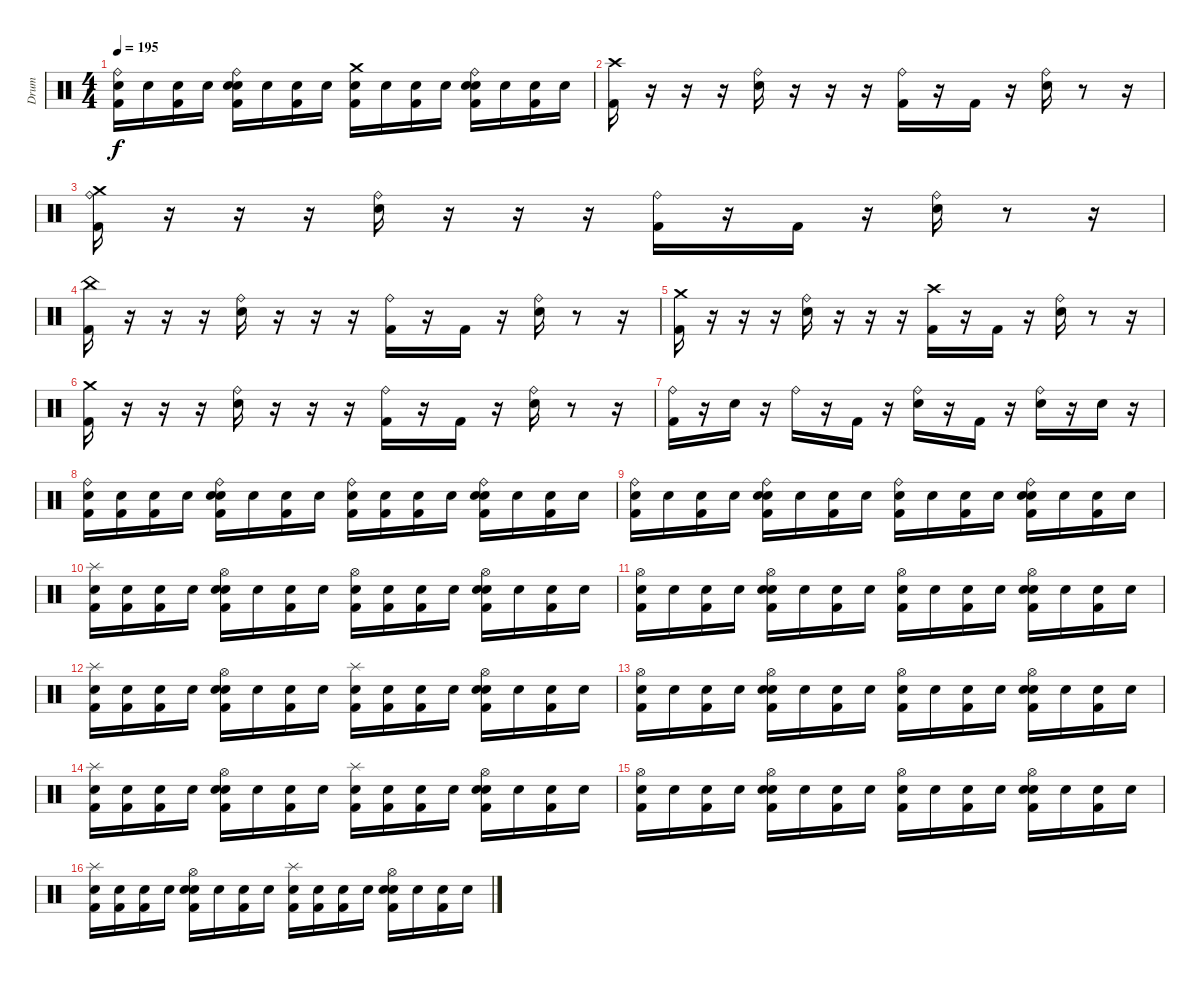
\track ("Drum" "Drum") {instrument percussion}
\staff {score}
\articulation defaults
\ts (4 4)
\tempo 195
\clef neutral
\ks c
("Ride (bell)" "Snare (hit)" "Kick (hit) 2").16{dy f} "Snare (hit)".16 ("Snare (hit)" "Kick (hit) 2").16 "Snare (hit)".16 ("Ride (bell)" "Snare (hit) 2" "Snare (hit)" "Kick (hit) 2").16 "Snare (hit)".16 ("Snare (hit)" "Kick (hit) 2").16 "Snare (hit)".16 ("Crash medium (hit)" "Snare (hit)" "Kick (hit) 2").16 "Snare (hit)".16 ("Snare (hit)" "Kick (hit) 2").16 "Snare (hit)".16 ("Ride (bell)" "Snare (hit) 2" "Snare (hit)" "Kick (hit) 2").16 "Snare (hit)".16 ("Snare (hit)" "Kick (hit) 2").16 "Snare (hit)".16 |
("Crash high (hit)" "Kick (hit) 2").16 r.16 r.16 r.16 ("Ride (bell)" "Snare (hit) 2").16 r.16 r.16 r.16 ("Ride (bell)" "Kick (hit) 2").16 r.16 "Kick (hit) 2".16 r.16 ("Ride (bell)" "Snare (hit) 2").16 r.8 r.16 |
("Crash medium (hit)" "Ride (bell)" "Kick (hit) 2").16 r.16 r.16 r.16 ("Ride (bell)" "Snare (hit) 2").16 r.16 r.16 r.16 ("Ride (bell)" "Kick (hit) 2").16 r.16 "Kick (hit) 2".16 r.16 ("Ride (bell)" "Snare (hit) 2").16 r.8 r.16 |
("China (hit)" "Kick (hit) 2").16 r.16 r.16 r.16 ("Ride (bell)" "Snare (hit) 2").16 r.16 r.16 r.16 ("Ride (bell)" "Kick (hit) 2").16 r.16 "Kick (hit) 2".16 r.16 ("Ride (bell)" "Snare (hit) 2").16 r.8 r.16 |
("Crash medium (hit)" "Kick (hit) 2").16 r.16 r.16 r.16 ("Ride (bell)" "Snare (hit) 2").16 r.16 r.16 r.16 ("Crash high (hit)" "Kick (hit) 2").16 r.16 "Kick (hit) 2".16 r.16 ("Ride (bell)" "Snare (hit) 2").16 r.8 r.16 |
("Crash medium (hit)" "Kick (hit) 2").16 r.16 r.16 r.16 ("Ride (bell)" "Snare (hit) 2").16 r.16 r.16 r.16 ("Ride (bell)" "Kick (hit) 2").16 r.16 "Kick (hit) 2".16 r.16 ("Ride (bell)" "Snare (hit) 2").16 r.8 r.16 |
("Ride (bell)" "Kick (hit) 2").16 r.16 "Snare (hit) 2".16 r.16 "Ride (bell)".16 r.16 "Kick (hit) 2".16 r.16 ("Ride (bell)" "Snare (hit) 2").16 r.16 "Kick (hit) 2".16 r.16 ("Ride (bell)" "Snare (hit) 2").16 r.16 "Snare (hit) 2".16 r.16 |
("Ride (bell)" "Snare (hit)" "Kick (hit) 2").16 ("Snare (hit)" "Kick (hit) 2").16 ("Snare (hit)" "Kick (hit) 2").16 "Snare (hit)".16 ("Ride (bell)" "Snare (hit) 2" "Snare (hit)" "Kick (hit) 2").16 "Snare (hit)".16 ("Snare (hit)" "Kick (hit) 2").16 "Snare (hit)".16 ("Ride (bell)" "Snare (hit)" "Kick (hit) 2").16 ("Snare (hit)" "Kick (hit) 2").16 ("Snare (hit)" "Kick (hit) 2").16 "Snare (hit)".16 ("Ride (bell)" "Snare (hit) 2" "Snare (hit)" "Kick (hit) 2").16 "Snare (hit)".16 ("Snare (hit)" "Kick (hit) 2").16 "Snare (hit)".16 |
("Ride (bell)" "Snare (hit)" "Kick (hit) 2").16 "Snare (hit)".16 ("Snare (hit)" "Kick (hit) 2").16 "Snare (hit)".16 ("Ride (bell)" "Snare (hit) 2" "Snare (hit)" "Kick (hit) 2").16 "Snare (hit)".16 ("Snare (hit)" "Kick (hit) 2").16 "Snare (hit)".16 ("Ride (bell)" "Snare (hit)" "Kick (hit) 2").16 "Snare (hit)".16 ("Snare (hit)" "Kick (hit) 2").16 "Snare (hit)".16 ("Ride (bell)" "Snare (hit) 2" "Snare (hit)" "Kick (hit) 2").16 "Snare (hit)".16 ("Snare (hit)" "Kick (hit) 2").16 "Snare (hit)".16 |
("Splash (hit)" "Snare (hit)" "Kick (hit) 2").16 ("Snare (hit)" "Kick (hit) 2").16 ("Snare (hit)" "Kick (hit) 2").16 "Snare (hit)".16 ("Hi-Hat (open)" "Snare (hit) 2" "Snare (hit)" "Kick (hit) 2").16 "Snare (hit)".16 ("Snare (hit)" "Kick (hit) 2").16 "Snare (hit)".16 ("Hi-Hat (open)" "Snare (hit)" "Kick (hit) 2").16 ("Snare (hit)" "Kick (hit) 2").16 ("Snare (hit)" "Kick (hit) 2").16 "Snare (hit)".16 ("Hi-Hat (open)" "Snare (hit) 2" "Snare (hit)" "Kick (hit) 2").16 "Snare (hit)".16 ("Snare (hit)" "Kick (hit) 2").16 "Snare (hit)".16 |
("Hi-Hat (open)" "Snare (hit)" "Kick (hit) 2").16 "Snare (hit)".16 ("Snare (hit)" "Kick (hit) 2").16 "Snare (hit)".16 ("Hi-Hat (open)" "Snare (hit) 2" "Snare (hit)" "Kick (hit) 2").16 "Snare (hit)".16 ("Snare (hit)" "Kick (hit) 2").16 "Snare (hit)".16 ("Hi-Hat (open)" "Snare (hit)" "Kick (hit) 2").16 "Snare (hit)".16 ("Snare (hit)" "Kick (hit) 2").16 "Snare (hit)".16 ("Hi-Hat (open)" "Snare (hit) 2" "Snare (hit)" "Kick (hit) 2").16 "Snare (hit)".16 ("Snare (hit)" "Kick (hit) 2").16 "Snare (hit)".16 |
("Splash (hit)" "Snare (hit)" "Kick (hit) 2").16 ("Snare (hit)" "Kick (hit) 2").16 ("Snare (hit)" "Kick (hit) 2").16 "Snare (hit)".16 ("Hi-Hat (open)" "Snare (hit) 2" "Snare (hit)" "Kick (hit) 2").16 "Snare (hit)".16 ("Snare (hit)" "Kick (hit) 2").16 "Snare (hit)".16 ("Splash (hit)" "Snare (hit)" "Kick (hit) 2").16 ("Snare (hit)" "Kick (hit) 2").16 ("Snare (hit)" "Kick (hit) 2").16 "Snare (hit)".16 ("Hi-Hat (open)" "Snare (hit) 2" "Snare (hit)" "Kick (hit) 2").16 "Snare (hit)".16 ("Snare (hit)" "Kick (hit) 2").16 "Snare (hit)".16 |
("Hi-Hat (open)" "Snare (hit)" "Kick (hit) 2").16 "Snare (hit)".16 ("Snare (hit)" "Kick (hit) 2").16 "Snare (hit)".16 ("Hi-Hat (open)" "Snare (hit) 2" "Snare (hit)" "Kick (hit) 2").16 "Snare (hit)".16 ("Snare (hit)" "Kick (hit) 2").16 "Snare (hit)".16 ("Hi-Hat (open)" "Snare (hit)" "Kick (hit) 2").16 "Snare (hit)".16 ("Snare (hit)" "Kick (hit) 2").16 "Snare (hit)".16 ("Hi-Hat (open)" "Snare (hit) 2" "Snare (hit)" "Kick (hit) 2").16 "Snare (hit)".16 ("Snare (hit)" "Kick (hit) 2").16 "Snare (hit)".16 |
("Splash (hit)" "Snare (hit)" "Kick (hit) 2").16 ("Snare (hit)" "Kick (hit) 2").16 ("Snare (hit)" "Kick (hit) 2").16 "Snare (hit)".16 ("Hi-Hat (open)" "Snare (hit) 2" "Snare (hit)" "Kick (hit) 2").16 "Snare (hit)".16 ("Snare (hit)" "Kick (hit) 2").16 "Snare (hit)".16 ("Splash (hit)" "Snare (hit)" "Kick (hit) 2").16 ("Snare (hit)" "Kick (hit) 2").16 ("Snare (hit)" "Kick (hit) 2").16 "Snare (hit)".16 ("Hi-Hat (open)" "Snare (hit) 2" "Snare (hit)" "Kick (hit) 2").16 "Snare (hit)".16 ("Snare (hit)" "Kick (hit) 2").16 "Snare (hit)".16 |
("Hi-Hat (open)" "Snare (hit)" "Kick (hit) 2").16 "Snare (hit)".16 ("Snare (hit)" "Kick (hit) 2").16 "Snare (hit)".16 ("Hi-Hat (open)" "Snare (hit) 2" "Snare (hit)" "Kick (hit) 2").16 "Snare (hit)".16 ("Snare (hit)" "Kick (hit) 2").16 "Snare (hit)".16 ("Hi-Hat (open)" "Snare (hit)" "Kick (hit) 2").16 "Snare (hit)".16 ("Snare (hit)" "Kick (hit) 2").16 "Snare (hit)".16 ("Hi-Hat (open)" "Snare (hit) 2" "Snare (hit)" "Kick (hit) 2").16 "Snare (hit)".16 ("Snare (hit)" "Kick (hit) 2").16 "Snare (hit)".16 |
("Splash (hit)" "Snare (hit)" "Kick (hit) 2").16 ("Snare (hit)" "Kick (hit) 2").16 ("Snare (hit)" "Kick (hit) 2").16 "Snare (hit)".16 ("Hi-Hat (open)" "Snare (hit) 2" "Snare (hit)" "Kick (hit) 2").16 "Snare (hit)".16 ("Snare (hit)" "Kick (hit) 2").16 "Snare (hit)".16 ("Splash (hit)" "Snare (hit)" "Kick (hit) 2").16 ("Snare (hit)" "Kick (hit) 2").16 ("Snare (hit)" "Kick (hit) 2").16 "Snare (hit)".16 ("Hi-Hat (open)" "Snare (hit) 2" "Snare (hit)" "Kick (hit) 2").16 "Snare (hit)".16 ("Snare (hit)" "Kick (hit) 2").16 "Snare (hit)".16
